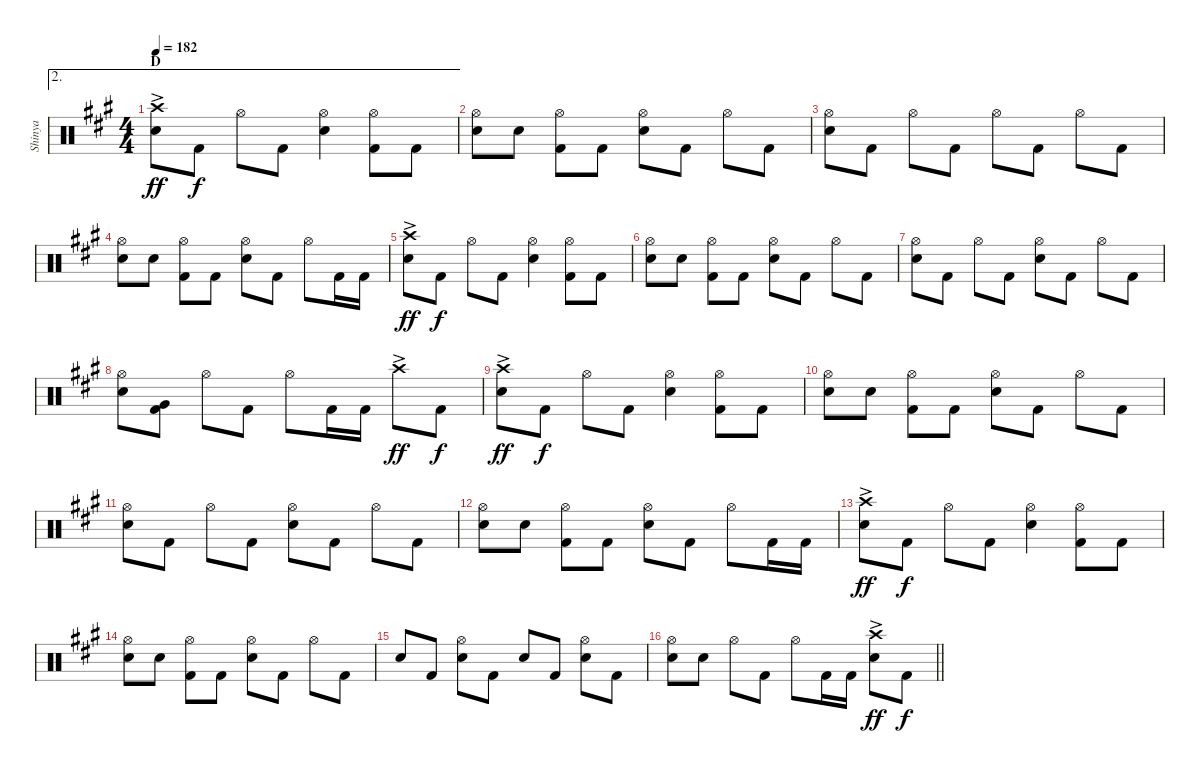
\track ("Shinya" "Shinya") {instrument percussion}
\staff {score}
\articulation defaults
\ae 2
\ts (4 4)
\section ("" "D")
\tempo 182
\clef neutral
\ks a
("Crash high (hit)"{ac} "Snare (hit) 2").8{dy ff} "Kick (hit) 2".8{dy f} "Hi-Hat (open)".8 "Kick (hit) 2".8 ("Hi-Hat (open)" "Snare (hit) 2").4 ("Hi-Hat (open)" "Kick (hit) 2").8 "Kick (hit) 2".8 |
("Hi-Hat (open)" "Snare (hit) 2").8 "Snare (hit) 2".8 ("Hi-Hat (open)" "Kick (hit) 2").8 "Kick (hit) 2".8 ("Hi-Hat (open)" "Snare (hit) 2").8 "Kick (hit) 2".8 "Hi-Hat (open)".8 "Kick (hit) 2".8 |
("Hi-Hat (open)" "Snare (hit) 2").8 "Kick (hit) 2".8 "Hi-Hat (open)".8 "Kick (hit) 2".8 "Hi-Hat (open)".8 "Kick (hit) 2".8 "Hi-Hat (open)".8 "Kick (hit) 2".8 |
("Hi-Hat (open)" "Snare (hit) 2").8 "Snare (hit) 2".8 ("Hi-Hat (open)" "Kick (hit) 2").8 "Kick (hit) 2".8 ("Hi-Hat (open)" "Snare (hit) 2").8 "Kick (hit) 2".8 "Hi-Hat (open)".8 "Kick (hit) 2".16 "Kick (hit) 2".16 |
("Crash high (hit)"{ac} "Snare (hit) 2").8{dy ff} "Kick (hit) 2".8{dy f} "Hi-Hat (open)".8 "Kick (hit) 2".8 ("Hi-Hat (open)" "Snare (hit) 2").4 ("Hi-Hat (open)" "Kick (hit) 2").8 "Kick (hit) 2".8 |
("Hi-Hat (open)" "Snare (hit) 2").8 "Snare (hit) 2".8 ("Hi-Hat (open)" "Kick (hit) 2").8 "Kick (hit) 2".8 ("Hi-Hat (open)" "Snare (hit) 2").8 "Kick (hit) 2".8 "Hi-Hat (open)".8 "Kick (hit) 2".8 |
("Hi-Hat (open)" "Snare (hit) 2").8 "Kick (hit) 2".8 "Hi-Hat (open)".8 "Kick (hit) 2".8 ("Hi-Hat (open)" "Snare (hit) 2").8 "Kick (hit) 2".8 "Hi-Hat (open)".8 "Kick (hit) 2".8 |
("Hi-Hat (open)" "Snare (hit) 2").8 ("Very Low Tom (hit)" "Kick (hit) 2").8 "Hi-Hat (open)".8 "Kick (hit) 2".8 "Hi-Hat (open)".8 "Kick (hit) 2".16 "Kick (hit) 2".16 "Crash high (hit)"{ac}.8{dy ff} "Kick (hit) 2".8{dy f} |
("Crash high (hit)"{ac} "Snare (hit) 2").8{dy ff} "Kick (hit) 2".8{dy f} "Hi-Hat (open)".8 "Kick (hit) 2".8 ("Hi-Hat (open)" "Snare (hit) 2").4 ("Hi-Hat (open)" "Kick (hit) 2").8 "Kick (hit) 2".8 |
("Hi-Hat (open)" "Snare (hit) 2").8 "Snare (hit) 2".8 ("Hi-Hat (open)" "Kick (hit) 2").8 "Kick (hit) 2".8 ("Hi-Hat (open)" "Snare (hit) 2").8 "Kick (hit) 2".8 "Hi-Hat (open)".8 "Kick (hit) 2".8 |
("Hi-Hat (open)" "Snare (hit) 2").8 "Kick (hit) 2".8 "Hi-Hat (open)".8 "Kick (hit) 2".8 ("Hi-Hat (open)" "Snare (hit) 2").8 "Kick (hit) 2".8 "Hi-Hat (open)".8 "Kick (hit) 2".8 |
("Hi-Hat (open)" "Snare (hit) 2").8 "Snare (hit) 2".8 ("Hi-Hat (open)" "Kick (hit) 2").8 "Kick (hit) 2".8 ("Hi-Hat (open)" "Snare (hit) 2").8 "Kick (hit) 2".8 "Hi-Hat (open)".8 "Kick (hit) 2".16 "Kick (hit) 2".16 |
("Crash high (hit)"{ac} "Snare (hit) 2").8{dy ff} "Kick (hit) 2".8{dy f} "Hi-Hat (open)".8 "Kick (hit) 2".8 ("Hi-Hat (open)" "Snare (hit) 2").4 ("Hi-Hat (open)" "Kick (hit) 2").8 "Kick (hit) 2".8 |
("Hi-Hat (open)" "Snare (hit) 2").8 "Snare (hit) 2".8 ("Hi-Hat (open)" "Kick (hit) 2").8 "Kick (hit) 2".8 ("Hi-Hat (open)" "Snare (hit) 2").8 "Kick (hit) 2".8 "Hi-Hat (open)".8 "Kick (hit) 2".8 |
"Snare (hit) 2".8 "Kick (hit) 2".8 ("Hi-Hat (open)" "Snare (hit) 2").8 "Kick (hit) 2".8 "Snare (hit) 2".8 "Kick (hit) 2".8 ("Hi-Hat (open)" "Snare (hit) 2").8 "Kick (hit) 2".8 |
\barLineRight lightlight
("Hi-Hat (open)" "Snare (hit) 2").8 "Snare (hit) 2".8 "Hi-Hat (open)".8 "Kick (hit) 2".8 "Hi-Hat (open)".8 "Kick (hit) 2".16 "Kick (hit) 2".16 ("Crash high (hit)"{ac} "Snare (hit) 2").8{dy ff} "Kick (hit) 2".8{dy f}
